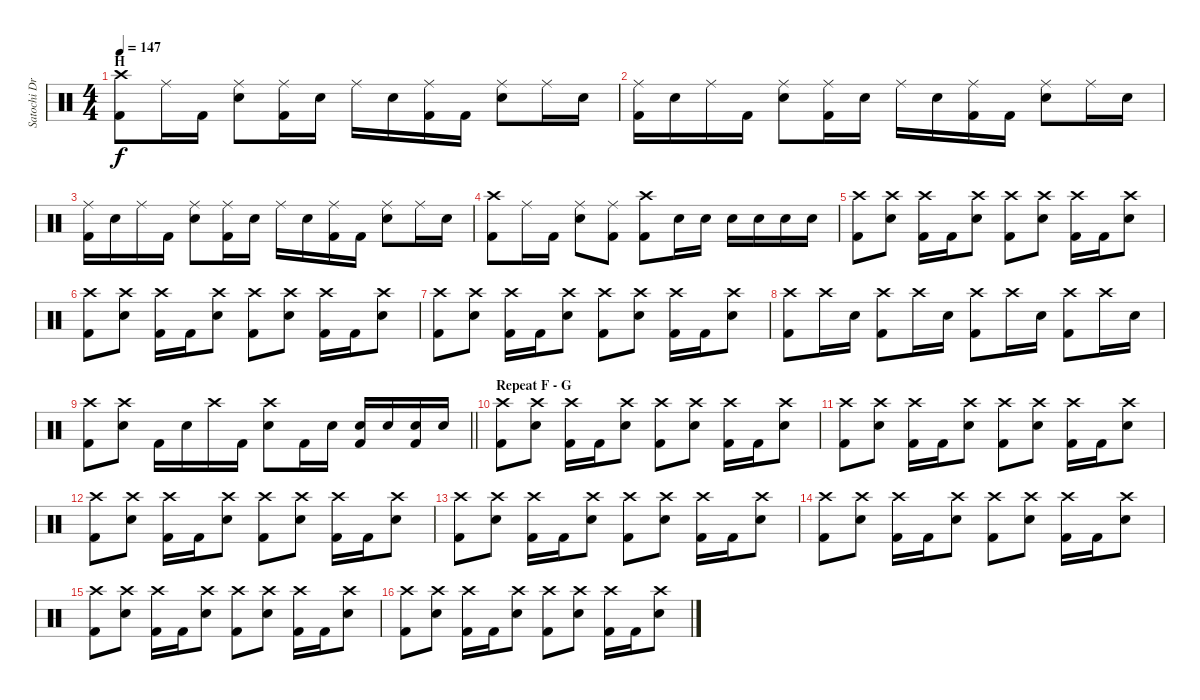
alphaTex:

\track ("Satochi Drums" "Satochi Dr") {instrument percussion}
\staff {score}
\articulation defaults
\ts (4 4)
\section ("" "H")
\tempo 147
\clef neutral
\ks c
("Crash high (hit)" "Kick (hit) 2").8{dy f} "Ride (middle)".16 "Kick (hit) 2".16 ("Ride (middle)" "Snare (hit) 2").8 ("Ride (middle)" "Kick (hit) 2").16 "Snare (hit) 2".16 "Ride (middle)".16 "Snare (hit) 2".16 ("Ride (middle)" "Kick (hit) 2").16 "Kick (hit) 2".16 ("Ride (middle)" "Snare (hit) 2").8 "Ride (middle)".16 "Snare (hit) 2".16 |
("Ride (middle)" "Kick (hit) 2").16 "Snare (hit) 2".16 "Ride (middle)".16 "Kick (hit) 2".16 ("Ride (middle)" "Snare (hit) 2").8 ("Ride (middle)" "Kick (hit) 2").16 "Snare (hit) 2".16 "Ride (middle)".16 "Snare (hit) 2".16 ("Ride (middle)" "Kick (hit) 2").16 "Kick (hit) 2".16 ("Ride (middle)" "Snare (hit) 2").8 "Ride (middle)".16 "Snare (hit) 2".16 |
("Ride (middle)" "Kick (hit) 2").16 "Snare (hit) 2".16 "Ride (middle)".16 "Kick (hit) 2".16 ("Ride (middle)" "Snare (hit) 2").8 ("Ride (middle)" "Kick (hit) 2").16 "Snare (hit) 2".16 "Ride (middle)".16 "Snare (hit) 2".16 ("Ride (middle)" "Kick (hit) 2").16 "Kick (hit) 2".16 ("Ride (middle)" "Snare (hit) 2").8 "Ride (middle)".16 "Snare (hit) 2".16 |
("Crash high (hit)" "Kick (hit) 2").8 "Ride (middle)".16 "Kick (hit) 2".16 ("Ride (middle)" "Snare (hit) 2").8 ("Ride (middle)" "Kick (hit) 2").8 ("Crash high (hit)" "Kick (hit) 2").8 "Snare (hit) 2".16 "Snare (hit) 2".16 "Snare (hit) 2".16 "Snare (hit) 2".16 "Snare (hit) 2".16 "Snare (hit) 2".16 |
("Crash high (hit)" "Kick (hit) 2").8 ("Crash high (hit)" "Snare (hit) 2").8 ("Crash high (hit)" "Kick (hit) 2").16 "Kick (hit) 2".16 ("Crash high (hit)" "Snare (hit) 2").8 ("Crash high (hit)" "Kick (hit) 2").8 ("Crash high (hit)" "Snare (hit) 2").8 ("Crash high (hit)" "Kick (hit) 2").16 "Kick (hit) 2".16 ("Crash high (hit)" "Snare (hit) 2").8 |
("Crash high (hit)" "Kick (hit) 2").8 ("Crash high (hit)" "Snare (hit) 2").8 ("Crash high (hit)" "Kick (hit) 2").16 "Kick (hit) 2".16 ("Crash high (hit)" "Snare (hit) 2").8 ("Crash high (hit)" "Kick (hit) 2").8 ("Crash high (hit)" "Snare (hit) 2").8 ("Crash high (hit)" "Kick (hit) 2").16 "Kick (hit) 2".16 ("Crash high (hit)" "Snare (hit) 2").8 |
("Crash high (hit)" "Kick (hit) 2").8 ("Crash high (hit)" "Snare (hit) 2").8 ("Crash high (hit)" "Kick (hit) 2").16 "Kick (hit) 2".16 ("Crash high (hit)" "Snare (hit) 2").8 ("Crash high (hit)" "Kick (hit) 2").8 ("Crash high (hit)" "Snare (hit) 2").8 ("Crash high (hit)" "Kick (hit) 2").16 "Kick (hit) 2".16 ("Crash high (hit)" "Snare (hit) 2").8 |
("Crash high (hit)" "Kick (hit) 2").8 "Crash high (hit)".16 "Snare (hit) 2".16 ("Crash high (hit)" "Kick (hit) 2").8 "Crash high (hit)".16 "Snare (hit) 2".16 ("Crash high (hit)" "Kick (hit) 2").8 "Crash high (hit)".16 "Snare (hit) 2".16 ("Crash high (hit)" "Kick (hit) 2").8 "Crash high (hit)".16 "Snare (hit) 2".16 |
\barLineRight lightlight
("Crash high (hit)" "Kick (hit) 2").8 ("Crash high (hit)" "Snare (hit) 2").8 "Kick (hit) 2".16 "Snare (hit) 2".16 "Crash high (hit)".16 "Kick (hit) 2".16 ("Crash high (hit)" "Snare (hit) 2").8 "Kick (hit) 2".16 "Snare (hit) 2".16 ("Snare (hit) 2" "Kick (hit) 2").16 "Snare (hit) 2".16 ("Snare (hit) 2" "Kick (hit) 2").16 "Snare (hit) 2".16 |
\section ("" "Repeat F - G")
("Crash high (hit)" "Kick (hit) 2").8 ("Crash high (hit)" "Snare (hit) 2").8 ("Crash high (hit)" "Kick (hit) 2").16 "Kick (hit) 2".16 ("Crash high (hit)" "Snare (hit) 2").8 ("Crash high (hit)" "Kick (hit) 2").8 ("Crash high (hit)" "Snare (hit) 2").8 ("Crash high (hit)" "Kick (hit) 2").16 "Kick (hit) 2".16 ("Crash high (hit)" "Snare (hit) 2").8 |
("Crash high (hit)" "Kick (hit) 2").8 ("Crash high (hit)" "Snare (hit) 2").8 ("Crash high (hit)" "Kick (hit) 2").16 "Kick (hit) 2".16 ("Crash high (hit)" "Snare (hit) 2").8 ("Crash high (hit)" "Kick (hit) 2").8 ("Crash high (hit)" "Snare (hit) 2").8 ("Crash high (hit)" "Kick (hit) 2").16 "Kick (hit) 2".16 ("Crash high (hit)" "Snare (hit) 2").8 |
("Crash high (hit)" "Kick (hit) 2").8 ("Crash high (hit)" "Snare (hit) 2").8 ("Crash high (hit)" "Kick (hit) 2").16 "Kick (hit) 2".16 ("Crash high (hit)" "Snare (hit) 2").8 ("Crash high (hit)" "Kick (hit) 2").8 ("Crash high (hit)" "Snare (hit) 2").8 ("Crash high (hit)" "Kick (hit) 2").16 "Kick (hit) 2".16 ("Crash high (hit)" "Snare (hit) 2").8 |
("Crash high (hit)" "Kick (hit) 2").8 ("Crash high (hit)" "Snare (hit) 2").8 ("Crash high (hit)" "Kick (hit) 2").16 "Kick (hit) 2".16 ("Crash high (hit)" "Snare (hit) 2").8 ("Crash high (hit)" "Kick (hit) 2").8 ("Crash high (hit)" "Snare (hit) 2").8 ("Crash high (hit)" "Kick (hit) 2").16 "Kick (hit) 2".16 ("Crash high (hit)" "Snare (hit) 2").8 |
("Crash high (hit)" "Kick (hit) 2").8 ("Crash high (hit)" "Snare (hit) 2").8 ("Crash high (hit)" "Kick (hit) 2").16 "Kick (hit) 2".16 ("Crash high (hit)" "Snare (hit) 2").8 ("Crash high (hit)" "Kick (hit) 2").8 ("Crash high (hit)" "Snare (hit) 2").8 ("Crash high (hit)" "Kick (hit) 2").16 "Kick (hit) 2".16 ("Crash high (hit)" "Snare (hit) 2").8 |
("Crash high (hit)" "Kick (hit) 2").8 ("Crash high (hit)" "Snare (hit) 2").8 ("Crash high (hit)" "Kick (hit) 2").16 "Kick (hit) 2".16 ("Crash high (hit)" "Snare (hit) 2").8 ("Crash high (hit)" "Kick (hit) 2").8 ("Crash high (hit)" "Snare (hit) 2").8 ("Crash high (hit)" "Kick (hit) 2").16 "Kick (hit) 2".16 ("Crash high (hit)" "Snare (hit) 2").8 |
("Crash high (hit)" "Kick (hit) 2").8 ("Crash high (hit)" "Snare (hit) 2").8 ("Crash high (hit)" "Kick (hit) 2").16 "Kick (hit) 2".16 ("Crash high (hit)" "Snare (hit) 2").8 ("Crash high (hit)" "Kick (hit) 2").8 ("Crash high (hit)" "Snare (hit) 2").8 ("Crash high (hit)" "Kick (hit) 2").16 "Kick (hit) 2".16 ("Crash high (hit)" "Snare (hit) 2").8
